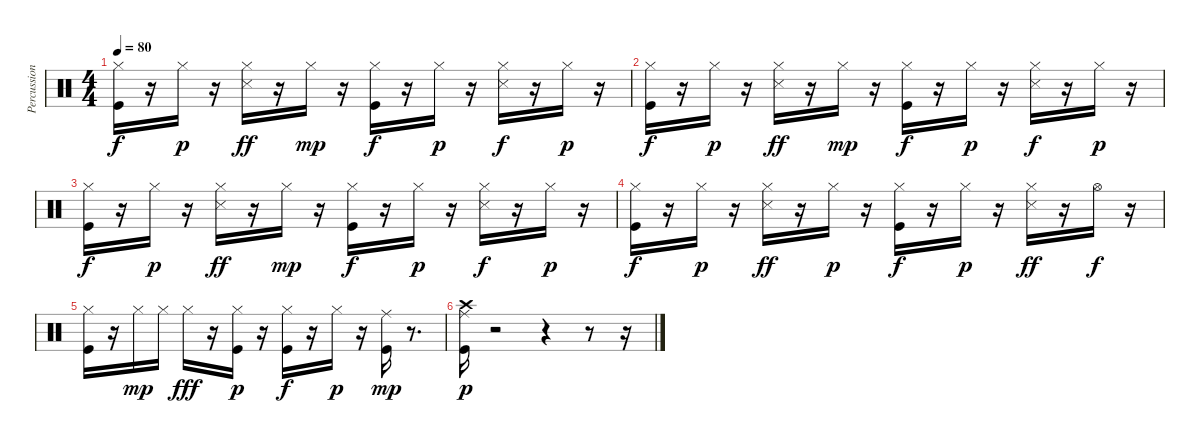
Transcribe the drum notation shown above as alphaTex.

\track ("Percussion" "Percussion") {instrument percussion}
\staff {score}
\articulation defaults
\ts (4 4)
\tempo 80
\clef neutral
\ks c
("Kick (hit)" "Hi-Hat (closed)").16{dy f} r.16 "Hi-Hat (closed)".16{dy p} r.16 ("Hi-Hat (closed)" "Snare (side stick) 3").16{dy ff} r.16 "Hi-Hat (closed)".16{dy mp} r.16 ("Kick (hit)" "Hi-Hat (closed)").16{dy f} r.16 "Hi-Hat (closed)".16{dy p} r.16 ("Hi-Hat (closed)" "Snare (side stick) 3").16{dy f} r.16 "Hi-Hat (closed)".16{dy p} r.16 |
("Kick (hit)" "Hi-Hat (closed)").16{dy f} r.16 "Hi-Hat (closed)".16{dy p} r.16 ("Hi-Hat (closed)" "Snare (side stick) 3").16{dy ff} r.16 "Hi-Hat (closed)".16{dy mp} r.16 ("Kick (hit)" "Hi-Hat (closed)").16{dy f} r.16 "Hi-Hat (closed)".16{dy p} r.16 ("Hi-Hat (closed)" "Snare (side stick) 3").16{dy f} r.16 "Hi-Hat (closed)".16{dy p} r.16 |
("Kick (hit)" "Hi-Hat (closed)").16{dy f} r.16 "Hi-Hat (closed)".16{dy p} r.16 ("Hi-Hat (closed)" "Snare (side stick) 3").16{dy ff} r.16 "Hi-Hat (closed)".16{dy mp} r.16 ("Kick (hit)" "Hi-Hat (closed)").16{dy f} r.16 "Hi-Hat (closed)".16{dy p} r.16 ("Hi-Hat (closed)" "Snare (side stick) 3").16{dy f} r.16 "Hi-Hat (closed)".16{dy p} r.16 |
("Kick (hit)" "Hi-Hat (closed)").16{dy f} r.16 "Hi-Hat (closed)".16{dy p} r.16 ("Hi-Hat (closed)" "Snare (side stick) 3").16{dy ff} r.16 "Hi-Hat (closed)".16{dy p} r.16 ("Kick (hit)" "Hi-Hat (closed)").16{dy f} r.16 "Hi-Hat (closed)".16{dy p} r.16 ("Hi-Hat (closed)" "Snare (side stick) 3").16{dy ff} r.16 "Hi-Hat (open)".16{dy f} r.16 |
("Kick (hit)" "Hi-Hat (closed)").16 r.16 "Hi-Hat (closed)".16{dy mp} "Hi-Hat (closed)".16 "Hi-Hat (closed)".16{dy fff} r.16 ("Kick (hit)" "Hi-Hat (closed)").16{dy p} r.16 ("Kick (hit)" "Hi-Hat (closed)").16{dy f} r.16 "Hi-Hat (closed)".16{dy p} r.16 ("Kick (hit)" "Ride (middle)").16{dy mp} r.8{d} |
("Kick (hit)" "Ride (middle)" "Crash high (hit)").16{dy p} r.2 r.4 r.8 r.16
